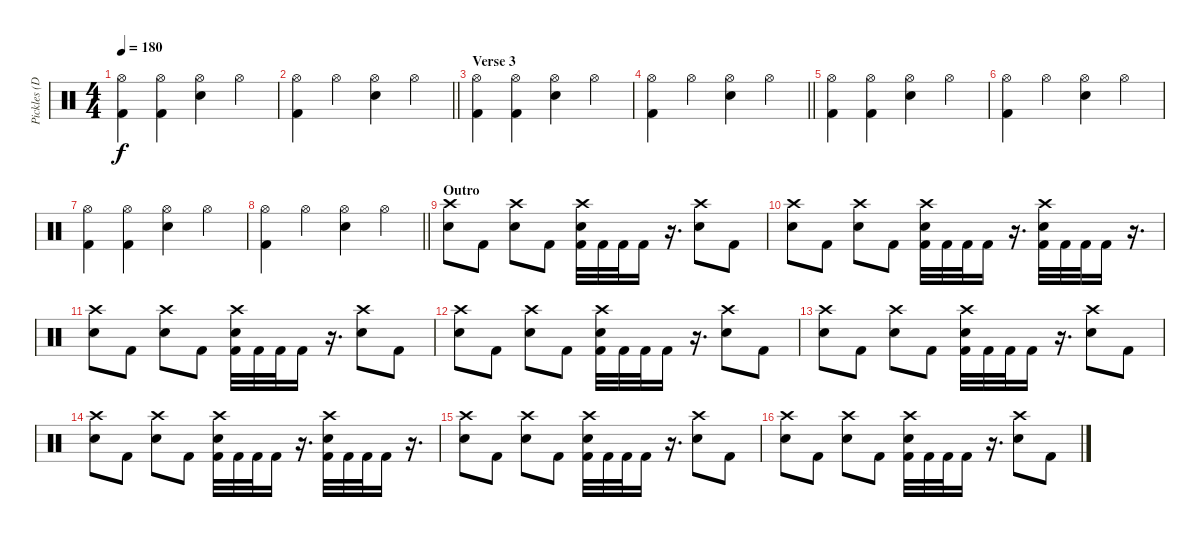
\track ("Pickles (Drums)" "Pickles (D") {instrument percussion}
\staff {score}
\articulation defaults
\ts (4 4)
\tempo 180
\clef neutral
\ks c
("Hi-Hat (open)" "Kick (hit) 2").4{dy f} ("Hi-Hat (open)" "Kick (hit) 2").4 ("Hi-Hat (open)" "Snare (hit) 2").4 "Hi-Hat (open)".4 |
\barLineRight lightlight
("Hi-Hat (open)" "Kick (hit) 2").4 "Hi-Hat (open)".4 ("Hi-Hat (open)" "Snare (hit) 2").4 "Hi-Hat (open)".4 |
\section ("" "Verse 3")
("Hi-Hat (open)" "Kick (hit) 2").4 ("Hi-Hat (open)" "Kick (hit) 2").4 ("Hi-Hat (open)" "Snare (hit) 2").4 "Hi-Hat (open)".4 |
\barLineRight lightlight
("Hi-Hat (open)" "Kick (hit) 2").4 "Hi-Hat (open)".4 ("Hi-Hat (open)" "Snare (hit) 2").4 "Hi-Hat (open)".4 |
("Hi-Hat (open)" "Kick (hit) 2").4 ("Hi-Hat (open)" "Kick (hit) 2").4 ("Hi-Hat (open)" "Snare (hit) 2").4 "Hi-Hat (open)".4 |
("Hi-Hat (open)" "Kick (hit) 2").4 "Hi-Hat (open)".4 ("Hi-Hat (open)" "Snare (hit) 2").4 "Hi-Hat (open)".4 |
("Hi-Hat (open)" "Kick (hit) 2").4 ("Hi-Hat (open)" "Kick (hit) 2").4 ("Hi-Hat (open)" "Snare (hit) 2").4 "Hi-Hat (open)".4 |
\barLineRight lightlight
("Hi-Hat (open)" "Kick (hit) 2").4 "Hi-Hat (open)".4 ("Hi-Hat (open)" "Snare (hit) 2").4 "Hi-Hat (open)".4 |
\section ("" "Outro")
("Crash high (hit)" "Snare (hit) 2").8 "Kick (hit) 2".8 ("Crash high (hit)" "Snare (hit) 2").8 "Kick (hit) 2".8 ("Crash high (hit)" "Snare (hit) 2" "Kick (hit) 2").32 "Kick (hit) 2".32 "Kick (hit) 2".32 "Kick (hit) 2".16 r.16{d} ("Crash high (hit)" "Snare (hit) 2").8 "Kick (hit) 2".8 |
("Crash high (hit)" "Snare (hit) 2").8 "Kick (hit) 2".8 ("Crash high (hit)" "Snare (hit) 2").8 "Kick (hit) 2".8 ("Crash high (hit)" "Snare (hit) 2" "Kick (hit) 2").32 "Kick (hit) 2".32 "Kick (hit) 2".32 "Kick (hit) 2".16 r.16{d} ("Crash high (hit)" "Snare (hit) 2" "Kick (hit) 2").32 "Kick (hit) 2".32 "Kick (hit) 2".32 "Kick (hit) 2".16 r.16{d} |
("Crash high (hit)" "Snare (hit) 2").8 "Kick (hit) 2".8 ("Crash high (hit)" "Snare (hit) 2").8 "Kick (hit) 2".8 ("Crash high (hit)" "Snare (hit) 2" "Kick (hit) 2").32 "Kick (hit) 2".32 "Kick (hit) 2".32 "Kick (hit) 2".16 r.16{d} ("Crash high (hit)" "Snare (hit) 2").8 "Kick (hit) 2".8 |
("Crash high (hit)" "Snare (hit) 2").8 "Kick (hit) 2".8 ("Crash high (hit)" "Snare (hit) 2").8 "Kick (hit) 2".8 ("Crash high (hit)" "Snare (hit) 2" "Kick (hit) 2").32 "Kick (hit) 2".32 "Kick (hit) 2".32 "Kick (hit) 2".16 r.16{d} ("Crash high (hit)" "Snare (hit) 2").8 "Kick (hit) 2".8 |
("Crash high (hit)" "Snare (hit) 2").8 "Kick (hit) 2".8 ("Crash high (hit)" "Snare (hit) 2").8 "Kick (hit) 2".8 ("Crash high (hit)" "Snare (hit) 2" "Kick (hit) 2").32 "Kick (hit) 2".32 "Kick (hit) 2".32 "Kick (hit) 2".16 r.16{d} ("Crash high (hit)" "Snare (hit) 2").8 "Kick (hit) 2".8 |
("Crash high (hit)" "Snare (hit) 2").8 "Kick (hit) 2".8 ("Crash high (hit)" "Snare (hit) 2").8 "Kick (hit) 2".8 ("Crash high (hit)" "Snare (hit) 2" "Kick (hit) 2").32 "Kick (hit) 2".32 "Kick (hit) 2".32 "Kick (hit) 2".16 r.16{d} ("Crash high (hit)" "Snare (hit) 2" "Kick (hit) 2").32 "Kick (hit) 2".32 "Kick (hit) 2".32 "Kick (hit) 2".16 r.16{d} |
("Crash high (hit)" "Snare (hit) 2").8 "Kick (hit) 2".8 ("Crash high (hit)" "Snare (hit) 2").8 "Kick (hit) 2".8 ("Crash high (hit)" "Snare (hit) 2" "Kick (hit) 2").32 "Kick (hit) 2".32 "Kick (hit) 2".32 "Kick (hit) 2".16 r.16{d} ("Crash high (hit)" "Snare (hit) 2").8 "Kick (hit) 2".8 |
("Crash high (hit)" "Snare (hit) 2").8 "Kick (hit) 2".8 ("Crash high (hit)" "Snare (hit) 2").8 "Kick (hit) 2".8 ("Crash high (hit)" "Snare (hit) 2" "Kick (hit) 2").32 "Kick (hit) 2".32 "Kick (hit) 2".32 "Kick (hit) 2".16 r.16{d} ("Crash high (hit)" "Snare (hit) 2").8 "Kick (hit) 2".8
